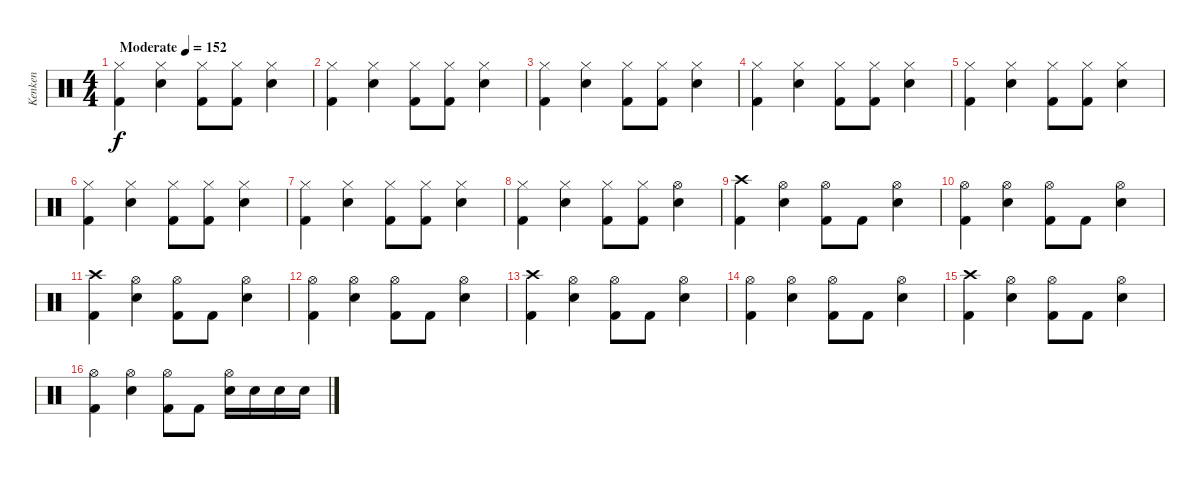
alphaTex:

\track ("Kenken" "Kenken") {instrument percussion}
\staff {score}
\articulation defaults
\ts (4 4)
\tempo (152 "Moderate")
\clef neutral
\ks c
("Hi-Hat (closed)" "Kick (hit) 2").4{dy f} ("Hi-Hat (closed)" "Electric Snare (hit)").4 ("Hi-Hat (closed)" "Kick (hit) 2").8 ("Hi-Hat (closed)" "Kick (hit) 2").8 ("Hi-Hat (closed)" "Electric Snare (hit)").4 |
("Hi-Hat (closed)" "Kick (hit) 2").4 ("Hi-Hat (closed)" "Electric Snare (hit)").4 ("Hi-Hat (closed)" "Kick (hit) 2").8 ("Hi-Hat (closed)" "Kick (hit) 2").8 ("Hi-Hat (closed)" "Electric Snare (hit)").4 |
("Hi-Hat (closed)" "Kick (hit) 2").4 ("Hi-Hat (closed)" "Electric Snare (hit)").4 ("Hi-Hat (closed)" "Kick (hit) 2").8 ("Hi-Hat (closed)" "Kick (hit) 2").8 ("Hi-Hat (closed)" "Electric Snare (hit)").4 |
("Hi-Hat (closed)" "Kick (hit) 2").4 ("Hi-Hat (closed)" "Electric Snare (hit)").4 ("Hi-Hat (closed)" "Kick (hit) 2").8 ("Hi-Hat (closed)" "Kick (hit) 2").8 ("Hi-Hat (closed)" "Electric Snare (hit)").4 |
("Hi-Hat (closed)" "Kick (hit) 2").4 ("Hi-Hat (closed)" "Electric Snare (hit)").4 ("Hi-Hat (closed)" "Kick (hit) 2").8 ("Hi-Hat (closed)" "Kick (hit) 2").8 ("Hi-Hat (closed)" "Electric Snare (hit)").4 |
("Hi-Hat (closed)" "Kick (hit) 2").4 ("Hi-Hat (closed)" "Electric Snare (hit)").4 ("Hi-Hat (closed)" "Kick (hit) 2").8 ("Hi-Hat (closed)" "Kick (hit) 2").8 ("Hi-Hat (closed)" "Electric Snare (hit)").4 |
("Hi-Hat (closed)" "Kick (hit) 2").4 ("Hi-Hat (closed)" "Electric Snare (hit)").4 ("Hi-Hat (closed)" "Kick (hit) 2").8 ("Hi-Hat (closed)" "Kick (hit) 2").8 ("Hi-Hat (closed)" "Electric Snare (hit)").4 |
("Hi-Hat (closed)" "Kick (hit) 2").4 ("Hi-Hat (closed)" "Electric Snare (hit)").4 ("Hi-Hat (closed)" "Kick (hit) 2").8 ("Hi-Hat (closed)" "Kick (hit) 2").8 ("Hi-Hat (open)" "Electric Snare (hit)").4 |
("Crash high (hit)" "Kick (hit) 2").4 ("Hi-Hat (open)" "Electric Snare (hit)").4 ("Hi-Hat (open)" "Kick (hit) 2").8 "Kick (hit) 2".8 ("Hi-Hat (open)" "Electric Snare (hit)").4 |
("Hi-Hat (open)" "Kick (hit) 2").4 ("Hi-Hat (open)" "Electric Snare (hit)").4 ("Hi-Hat (open)" "Kick (hit) 2").8 "Kick (hit) 2".8 ("Hi-Hat (open)" "Electric Snare (hit)").4 |
("Crash high (hit)" "Kick (hit) 2").4 ("Hi-Hat (open)" "Electric Snare (hit)").4 ("Hi-Hat (open)" "Kick (hit) 2").8 "Kick (hit) 2".8 ("Hi-Hat (open)" "Electric Snare (hit)").4 |
("Hi-Hat (open)" "Kick (hit) 2").4 ("Hi-Hat (open)" "Electric Snare (hit)").4 ("Hi-Hat (open)" "Kick (hit) 2").8 "Kick (hit) 2".8 ("Hi-Hat (open)" "Electric Snare (hit)").4 |
("Crash high (hit)" "Kick (hit) 2").4 ("Hi-Hat (open)" "Electric Snare (hit)").4 ("Hi-Hat (open)" "Kick (hit) 2").8 "Kick (hit) 2".8 ("Hi-Hat (open)" "Electric Snare (hit)").4 |
("Hi-Hat (open)" "Kick (hit) 2").4 ("Hi-Hat (open)" "Electric Snare (hit)").4 ("Hi-Hat (open)" "Kick (hit) 2").8 "Kick (hit) 2".8 ("Hi-Hat (open)" "Electric Snare (hit)").4 |
("Crash high (hit)" "Kick (hit) 2").4 ("Hi-Hat (open)" "Electric Snare (hit)").4 ("Hi-Hat (open)" "Kick (hit) 2").8 "Kick (hit) 2".8 ("Hi-Hat (open)" "Electric Snare (hit)").4 |
("Hi-Hat (open)" "Kick (hit) 2").4 ("Hi-Hat (open)" "Electric Snare (hit)").4 ("Hi-Hat (open)" "Kick (hit) 2").8 "Kick (hit) 2".8 ("Hi-Hat (open)" "Electric Snare (hit)").16 "Electric Snare (hit)".16 "Electric Snare (hit)".16 "Electric Snare (hit)".16
